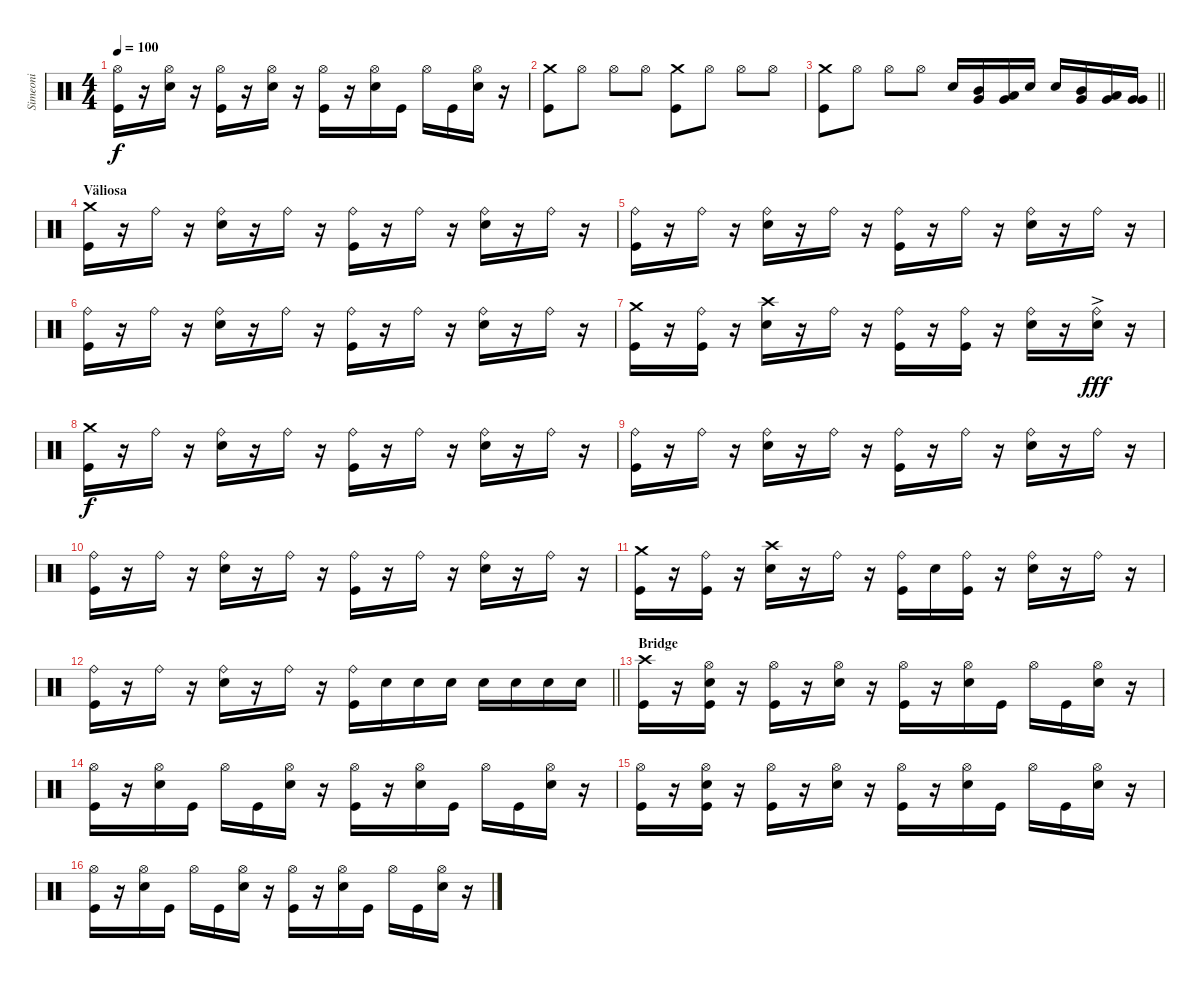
\track ("Simeoni" "Simeoni") {instrument percussion}
\staff {score}
\articulation defaults
\ts (4 4)
\tempo 100
\clef neutral
\ks c
("Hi-Hat (open)" "Kick (hit)").16{dy f} r.16 ("Hi-Hat (open)" "Electric Snare (hit)").16 r.16 ("Hi-Hat (open)" "Kick (hit)").16 r.16 ("Hi-Hat (open)" "Electric Snare (hit)").16 r.16 ("Hi-Hat (open)" "Kick (hit)").16 r.16 ("Hi-Hat (open)" "Electric Snare (hit)").16 "Kick (hit)".16 "Hi-Hat (open)".16 "Kick (hit)".16 ("Hi-Hat (open)" "Electric Snare (hit)").16 r.16 |
("Crash medium (hit)" "Kick (hit)").8 "Hi-Hat (open)".8 "Hi-Hat (open)".8 "Hi-Hat (open)".8 ("Crash medium (hit)" "Kick (hit)").8 "Hi-Hat (open)".8 "Hi-Hat (open)".8 "Hi-Hat (open)".8 |
\barLineRight lightlight
("Crash medium (hit)" "Kick (hit)").8 "Hi-Hat (open)".8 "Hi-Hat (open)".8 "Hi-Hat (open)".8 "Electric Snare (hit)".16 ("Mid Tom (hit)" "Very Low Tom (hit)").16 ("Low Tom (hit)" "Very Low Tom (hit)").16 "Electric Snare (hit)".16 "Electric Snare (hit)".16 ("Mid Tom (hit)" "Very Low Tom (hit)").16 ("Low Tom (hit)" "Very Low Tom (hit)").16 ("Very Low Tom (hit)" "Very Low Tom (hit)").16 |
\section ("" "Väliosa")
("Crash medium (hit)" "Kick (hit)").16 r.16 "Ride (bell)".16 r.16 ("Ride (bell)" "Electric Snare (hit)").16 r.16 "Ride (bell)".16 r.16 ("Ride (bell)" "Kick (hit)").16 r.16 "Ride (bell)".16 r.16 ("Ride (bell)" "Electric Snare (hit)").16 r.16 "Ride (bell)".16 r.16 |
("Ride (bell)" "Kick (hit)").16 r.16 "Ride (bell)".16 r.16 ("Ride (bell)" "Electric Snare (hit)").16 r.16 "Ride (bell)".16 r.16 ("Ride (bell)" "Kick (hit)").16 r.16 "Ride (bell)".16 r.16 ("Ride (bell)" "Electric Snare (hit)").16 r.16 "Ride (bell)".16 r.16 |
("Ride (bell)" "Kick (hit)").16 r.16 "Ride (bell)".16 r.16 ("Ride (bell)" "Electric Snare (hit)").16 r.16 "Ride (bell)".16 r.16 ("Ride (bell)" "Kick (hit)").16 r.16 "Ride (bell)".16 r.16 ("Ride (bell)" "Electric Snare (hit)").16 r.16 "Ride (bell)".16 r.16 |
("Crash medium (hit)" "Kick (hit)").16 r.16 ("Ride (bell)" "Kick (hit)").16 r.16 ("Crash high (hit)" "Electric Snare (hit)").16 r.16 "Ride (bell)".16 r.16 ("Ride (bell)" "Kick (hit)").16 r.16 ("Ride (bell)" "Kick (hit)").16 r.16 ("Ride (bell)" "Electric Snare (hit)").16 r.16 ("Ride (bell)"{ac} "Electric Snare (hit)").16{dy fff} r.16 |
("Crash medium (hit)" "Kick (hit)").16{dy f} r.16 "Ride (bell)".16 r.16 ("Ride (bell)" "Electric Snare (hit)").16 r.16 "Ride (bell)".16 r.16 ("Ride (bell)" "Kick (hit)").16 r.16 "Ride (bell)".16 r.16 ("Ride (bell)" "Electric Snare (hit)").16 r.16 "Ride (bell)".16 r.16 |
("Ride (bell)" "Kick (hit)").16 r.16 "Ride (bell)".16 r.16 ("Ride (bell)" "Electric Snare (hit)").16 r.16 "Ride (bell)".16 r.16 ("Ride (bell)" "Kick (hit)").16 r.16 "Ride (bell)".16 r.16 ("Ride (bell)" "Electric Snare (hit)").16 r.16 "Ride (bell)".16 r.16 |
("Ride (bell)" "Kick (hit)").16 r.16 "Ride (bell)".16 r.16 ("Ride (bell)" "Electric Snare (hit)").16 r.16 "Ride (bell)".16 r.16 ("Ride (bell)" "Kick (hit)").16 r.16 "Ride (bell)".16 r.16 ("Ride (bell)" "Electric Snare (hit)").16 r.16 "Ride (bell)".16 r.16 |
("Crash medium (hit)" "Kick (hit)").16 r.16 ("Ride (bell)" "Kick (hit)").16 r.16 ("Crash high (hit)" "Electric Snare (hit)").16 r.16 "Ride (bell)".16 r.16 ("Ride (bell)" "Kick (hit)").16 "Electric Snare (hit)".16 ("Ride (bell)" "Kick (hit)").16 r.16 ("Ride (bell)" "Electric Snare (hit)").16 r.16 "Ride (bell)".16 r.16 |
\barLineRight lightlight
("Ride (bell)" "Kick (hit)").16 r.16 "Ride (bell)".16 r.16 ("Ride (bell)" "Electric Snare (hit)").16 r.16 "Ride (bell)".16 r.16 ("Ride (bell)" "Kick (hit)").16 "Electric Snare (hit)".16 "Electric Snare (hit)".16 "Electric Snare (hit)".16 "Electric Snare (hit)".16 "Electric Snare (hit)".16 "Electric Snare (hit)".16 "Electric Snare (hit)".16 |
\section ("" "Bridge")
("Crash high (hit)" "Kick (hit)").16 r.16 ("Hi-Hat (open)" "Electric Snare (hit)" "Kick (hit)").16 r.16 ("Hi-Hat (open)" "Kick (hit)").16 r.16 ("Hi-Hat (open)" "Electric Snare (hit)").16 r.16 ("Hi-Hat (open)" "Kick (hit)").16 r.16 ("Hi-Hat (open)" "Electric Snare (hit)").16 "Kick (hit)".16 "Hi-Hat (open)".16 "Kick (hit)".16 ("Hi-Hat (open)" "Electric Snare (hit)").16 r.16 |
("Hi-Hat (open)" "Kick (hit)").16 r.16 ("Hi-Hat (open)" "Electric Snare (hit)").16 "Kick (hit)".16 "Hi-Hat (open)".16 "Kick (hit)".16 ("Hi-Hat (open)" "Electric Snare (hit)").16 r.16 ("Hi-Hat (open)" "Kick (hit)").16 r.16 ("Hi-Hat (open)" "Electric Snare (hit)").16 "Kick (hit)".16 "Hi-Hat (open)".16 "Kick (hit)".16 ("Hi-Hat (open)" "Electric Snare (hit)").16 r.16 |
("Hi-Hat (open)" "Kick (hit)").16 r.16 ("Hi-Hat (open)" "Electric Snare (hit)" "Kick (hit)").16 r.16 ("Hi-Hat (open)" "Kick (hit)").16 r.16 ("Hi-Hat (open)" "Electric Snare (hit)").16 r.16 ("Hi-Hat (open)" "Kick (hit)").16 r.16 ("Hi-Hat (open)" "Electric Snare (hit)").16 "Kick (hit)".16 "Hi-Hat (open)".16 "Kick (hit)".16 ("Hi-Hat (open)" "Electric Snare (hit)").16 r.16 |
("Hi-Hat (open)" "Kick (hit)").16 r.16 ("Hi-Hat (open)" "Electric Snare (hit)").16 "Kick (hit)".16 "Hi-Hat (open)".16 "Kick (hit)".16 ("Hi-Hat (open)" "Electric Snare (hit)").16 r.16 ("Hi-Hat (open)" "Kick (hit)").16 r.16 ("Hi-Hat (open)" "Electric Snare (hit)").16 "Kick (hit)".16 "Hi-Hat (open)".16 "Kick (hit)".16 ("Hi-Hat (open)" "Electric Snare (hit)").16 r.16
